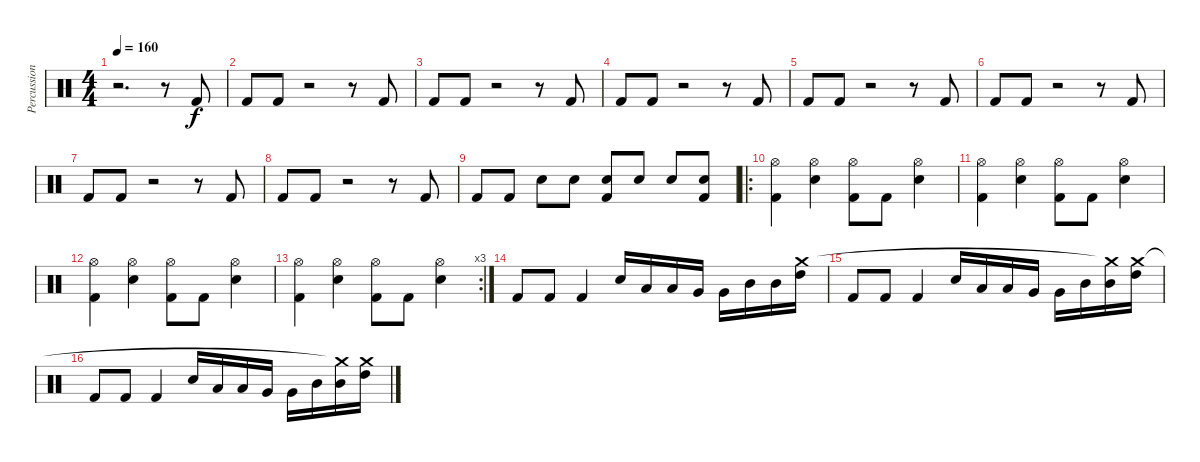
\track ("Percussions" "Percussion") {instrument percussion}
\staff {score}
\articulation defaults
\ts (4 4)
\tempo 160
\clef neutral
\ks c
r.2{d dy f} r.8 "Kick (hit) 2".8 |
"Kick (hit) 2".8 "Kick (hit) 2".8 r.2 r.8 "Kick (hit) 2".8 |
"Kick (hit) 2".8 "Kick (hit) 2".8 r.2 r.8 "Kick (hit) 2".8 |
"Kick (hit) 2".8 "Kick (hit) 2".8 r.2 r.8 "Kick (hit) 2".8 |
"Kick (hit) 2".8 "Kick (hit) 2".8 r.2 r.8 "Kick (hit) 2".8 |
"Kick (hit) 2".8 "Kick (hit) 2".8 r.2 r.8 "Kick (hit) 2".8 |
"Kick (hit) 2".8 "Kick (hit) 2".8 r.2 r.8 "Kick (hit) 2".8 |
"Kick (hit) 2".8 "Kick (hit) 2".8 r.2 r.8 "Kick (hit) 2".8 |
"Kick (hit) 2".8 "Kick (hit) 2".8 "Electric Snare (hit)".8 "Electric Snare (hit)".8 ("Kick (hit) 2" "Electric Snare (hit)").8 "Electric Snare (hit)".8 "Electric Snare (hit)".8 ("Kick (hit) 2" "Electric Snare (hit)").8 |
\ro
("Kick (hit) 2" "Hi-Hat (open)").4 ("Electric Snare (hit)" "Hi-Hat (open)").4 ("Kick (hit) 2" "Hi-Hat (open)").8 "Kick (hit) 2".8 ("Electric Snare (hit)" "Hi-Hat (open)").4 |
("Kick (hit) 2" "Hi-Hat (open)").4 ("Electric Snare (hit)" "Hi-Hat (open)").4 ("Kick (hit) 2" "Hi-Hat (open)").8 "Kick (hit) 2".8 ("Electric Snare (hit)" "Hi-Hat (open)").4 |
("Kick (hit) 2" "Hi-Hat (open)").4 ("Electric Snare (hit)" "Hi-Hat (open)").4 ("Kick (hit) 2" "Hi-Hat (open)").8 "Kick (hit) 2".8 ("Electric Snare (hit)" "Hi-Hat (open)").4 |
\rc 3
("Kick (hit) 2" "Hi-Hat (open)").4 ("Electric Snare (hit)" "Hi-Hat (open)").4 ("Kick (hit) 2" "Hi-Hat (open)").8 "Kick (hit) 2".8 ("Electric Snare (hit)" "Hi-Hat (open)").4 |
"Kick (hit) 2".8 "Kick (hit) 2".8 "Kick (hit) 2".4 "Electric Snare (hit)".16 "Low Tom (hit)".16 "Low Tom (hit)".16 "Very Low Tom (hit)".16 "Very Low Tom (hit)".16 "Mid Tom (hit)".16 "Mid Tom (hit)".16 ("High Tom (hit)" "Crash medium (hit)").16 |
"Kick (hit) 2".8 "Kick (hit) 2".8 "Kick (hit) 2".4 "Electric Snare (hit)".16 "Low Tom (hit)".16 "Low Tom (hit)".16 "Very Low Tom (hit)".16 "Very Low Tom (hit)".16 "Mid Tom (hit)".16 ("Mid Tom (hit)" "Crash medium (hit)"{t}).16 ("High Tom (hit)" "Crash medium (hit)").16 |
"Kick (hit) 2".8 "Kick (hit) 2".8 "Kick (hit) 2".4 "Electric Snare (hit)".16 "Low Tom (hit)".16 "Low Tom (hit)".16 "Very Low Tom (hit)".16 "Very Low Tom (hit)".16 "Mid Tom (hit)".16 ("Mid Tom (hit)" "Crash medium (hit)"{t}).16 ("High Tom (hit)" "Crash medium (hit)").16
